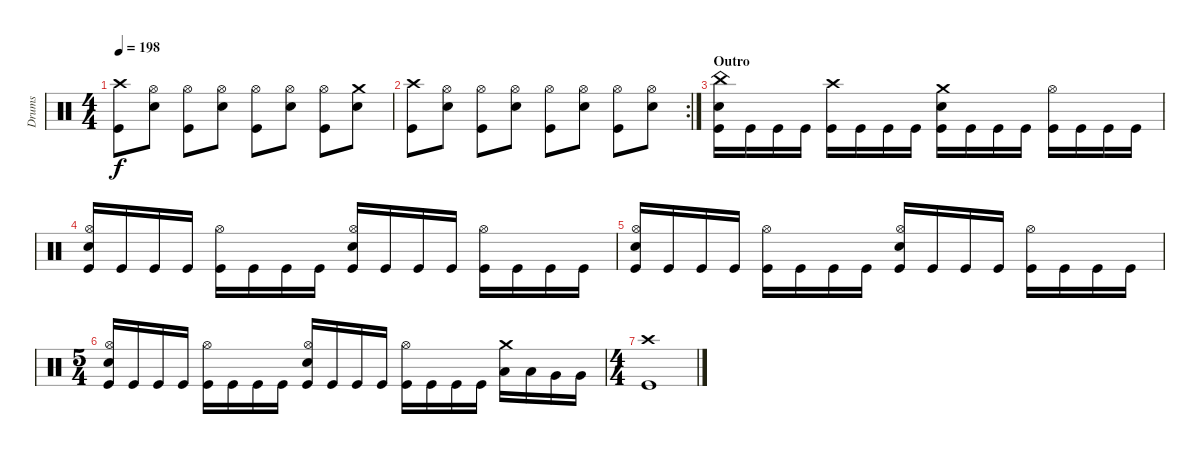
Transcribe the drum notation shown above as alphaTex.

\track ("Drums" "Drums") {instrument percussion}
\staff {score}
\articulation defaults
\ts (4 4)
\tempo 198
\clef neutral
\ks c
("Crash high (hit)" "Kick (hit)").8{dy f} ("Hi-Hat (open)" "Snare (hit) 2").8 ("Hi-Hat (open)" "Kick (hit)").8 ("Hi-Hat (open)" "Snare (hit) 2").8 ("Hi-Hat (open)" "Kick (hit)").8 ("Hi-Hat (open)" "Snare (hit) 2").8 ("Hi-Hat (open)" "Kick (hit)").8 ("Crash medium (hit)" "Snare (hit) 2").8 |
\rc 2
("Crash high (hit)" "Kick (hit)").8 ("Hi-Hat (open)" "Snare (hit) 2").8 ("Hi-Hat (open)" "Kick (hit)").8 ("Hi-Hat (open)" "Snare (hit) 2").8 ("Hi-Hat (open)" "Kick (hit)").8 ("Hi-Hat (open)" "Snare (hit) 2").8 ("Hi-Hat (open)" "Kick (hit)").8 ("Hi-Hat (open)" "Snare (hit) 2").8 |
\section ("" "Outro")
("China (hit)" "Snare (hit) 2" "Kick (hit)").16 "Kick (hit)".16 "Kick (hit)".16 "Kick (hit)".16 ("Crash high (hit)" "Kick (hit)").16 "Kick (hit)".16 "Kick (hit)".16 "Kick (hit)".16 ("Crash medium (hit)" "Snare (hit) 2" "Kick (hit)").16 "Kick (hit)".16 "Kick (hit)".16 "Kick (hit)".16 ("Hi-Hat (open)" "Kick (hit)").16 "Kick (hit)".16 "Kick (hit)".16 "Kick (hit)".16 |
("Hi-Hat (open)" "Snare (hit) 2" "Kick (hit)").16 "Kick (hit)".16 "Kick (hit)".16 "Kick (hit)".16 ("Hi-Hat (open)" "Kick (hit)").16 "Kick (hit)".16 "Kick (hit)".16 "Kick (hit)".16 ("Hi-Hat (open)" "Snare (hit) 2" "Kick (hit)").16 "Kick (hit)".16 "Kick (hit)".16 "Kick (hit)".16 ("Hi-Hat (open)" "Kick (hit)").16 "Kick (hit)".16 "Kick (hit)".16 "Kick (hit)".16 |
("Hi-Hat (open)" "Snare (hit) 2" "Kick (hit)").16 "Kick (hit)".16 "Kick (hit)".16 "Kick (hit)".16 ("Hi-Hat (open)" "Kick (hit)").16 "Kick (hit)".16 "Kick (hit)".16 "Kick (hit)".16 ("Hi-Hat (open)" "Snare (hit) 2" "Kick (hit)").16 "Kick (hit)".16 "Kick (hit)".16 "Kick (hit)".16 ("Hi-Hat (open)" "Kick (hit)").16 "Kick (hit)".16 "Kick (hit)".16 "Kick (hit)".16 |
\ts (5 4)
("Hi-Hat (open)" "Snare (hit) 2" "Kick (hit)").16 "Kick (hit)".16 "Kick (hit)".16 "Kick (hit)".16 ("Hi-Hat (open)" "Kick (hit)").16 "Kick (hit)".16 "Kick (hit)".16 "Kick (hit)".16 ("Hi-Hat (open)" "Snare (hit) 2" "Kick (hit)").16 "Kick (hit)".16 "Kick (hit)".16 "Kick (hit)".16 ("Hi-Hat (open)" "Kick (hit)").16 "Kick (hit)".16 "Kick (hit)".16 "Kick (hit)".16 ("Crash medium (hit)" "Low Tom (hit)").16 "Low Tom (hit)".16 "Very Low Tom (hit)".16 "Very Low Tom (hit)".16 |
\ts (4 4)
("Crash high (hit)" "Kick (hit)").1
